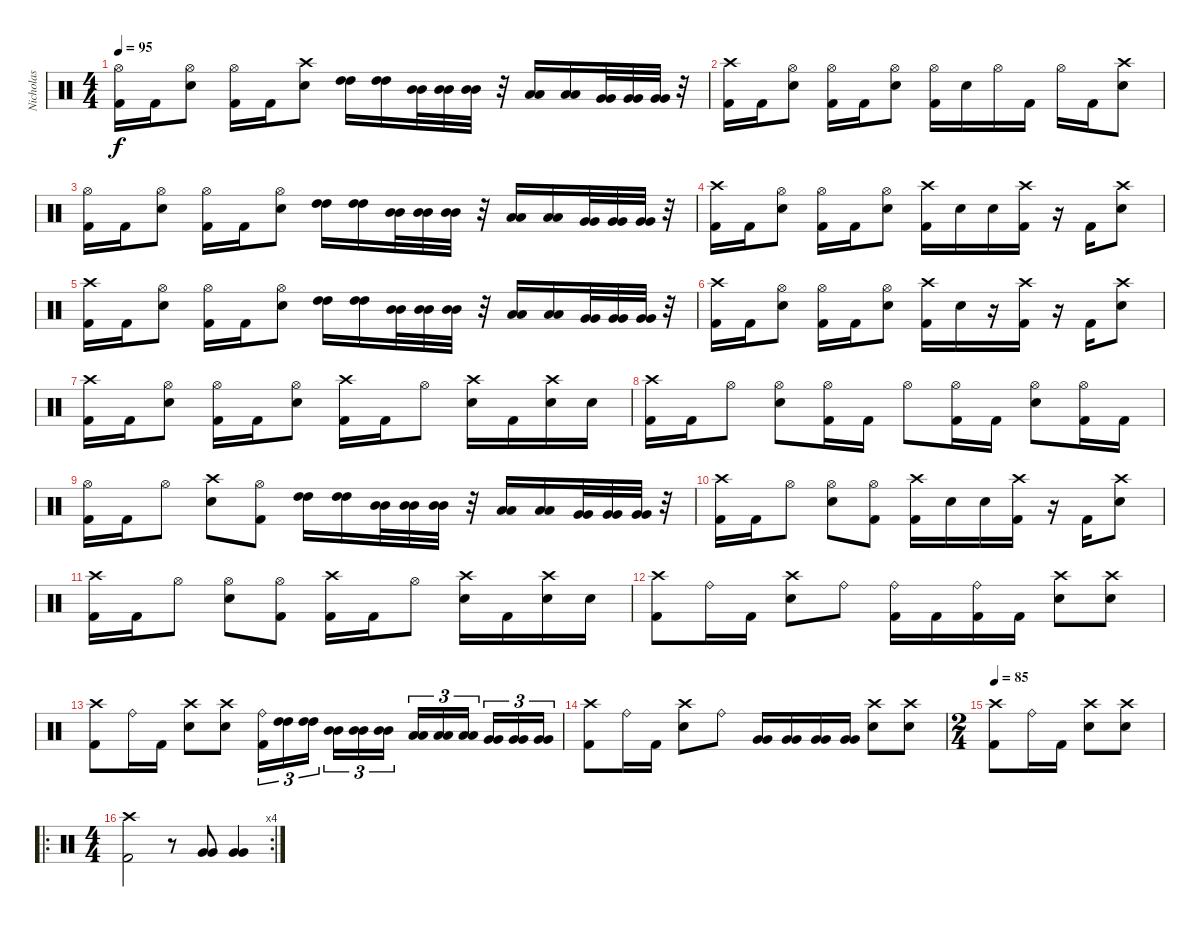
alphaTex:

\track ("Nicholas" "Nicholas") {instrument percussion}
\staff {score}
\articulation defaults
\ts (4 4)
\tempo 95
\clef neutral
\ks c
("Hi-Hat (open)" "Kick (hit) 2").16{dy f} "Kick (hit) 2".16 ("Hi-Hat (open)" "Electric Snare (hit)").8 ("Hi-Hat (open)" "Kick (hit) 2").16 "Kick (hit) 2".16 ("Crash high (hit)" "Electric Snare (hit)").8 ("High Tom (hit)" "High Tom (hit)").16{balance 10} ("High Tom (hit)" "High Tom (hit)").16 ("Mid Tom (hit)" "Mid Tom (hit)").32{balance 8} ("Mid Tom (hit)" "Mid Tom (hit)").32 ("Mid Tom (hit)" "Mid Tom (hit)").32 r.32 ("Low Tom (hit)" "Low Tom (hit)").16{balance 7} ("Low Tom (hit)" "Low Tom (hit)").16 ("Very Low Tom (hit)" "Very Low Tom (hit)").32{balance 6} ("Very Low Tom (hit)" "Very Low Tom (hit)").32 ("Very Low Tom (hit)" "Very Low Tom (hit)").32 r.32{balance 8} |
("Crash high (hit)" "Kick (hit) 2").16 "Kick (hit) 2".16 ("Hi-Hat (open)" "Electric Snare (hit)").8 ("Hi-Hat (open)" "Kick (hit) 2").16 "Kick (hit) 2".16 ("Hi-Hat (open)" "Electric Snare (hit)").8 ("Hi-Hat (open)" "Kick (hit) 2").16 "Electric Snare (hit)".16 "Hi-Hat (open)".16 "Kick (hit) 2".16 "Hi-Hat (open)".16 "Kick (hit) 2".16 ("Crash high (hit)" "Electric Snare (hit)").8 |
("Hi-Hat (open)" "Kick (hit) 2").16 "Kick (hit) 2".16 ("Hi-Hat (open)" "Electric Snare (hit)").8 ("Hi-Hat (open)" "Kick (hit) 2").16 "Kick (hit) 2".16 ("Hi-Hat (open)" "Electric Snare (hit)").8 ("High Tom (hit)" "High Tom (hit)").16{balance 10} ("High Tom (hit)" "High Tom (hit)").16 ("Mid Tom (hit)" "Mid Tom (hit)").32{balance 8} ("Mid Tom (hit)" "Mid Tom (hit)").32 ("Mid Tom (hit)" "Mid Tom (hit)").32 r.32 ("Low Tom (hit)" "Low Tom (hit)").16{balance 7} ("Low Tom (hit)" "Low Tom (hit)").16 ("Very Low Tom (hit)" "Very Low Tom (hit)").32{balance 6} ("Very Low Tom (hit)" "Very Low Tom (hit)").32 ("Very Low Tom (hit)" "Very Low Tom (hit)").32 r.32{balance 8} |
("Crash high (hit)" "Kick (hit) 2").16 "Kick (hit) 2".16 ("Hi-Hat (open)" "Electric Snare (hit)").8 ("Hi-Hat (open)" "Kick (hit) 2").16 "Kick (hit) 2".16 ("Hi-Hat (open)" "Electric Snare (hit)").8 ("Crash high (hit)" "Kick (hit) 2").16 "Electric Snare (hit)".16 "Electric Snare (hit)".16 ("Crash high (hit)" "Kick (hit) 2").16 r.16 "Kick (hit) 2".16 ("Crash high (hit)" "Electric Snare (hit)").8 |
("Crash high (hit)" "Kick (hit) 2").16 "Kick (hit) 2".16 ("Hi-Hat (open)" "Electric Snare (hit)").8 ("Hi-Hat (open)" "Kick (hit) 2").16 "Kick (hit) 2".16 ("Hi-Hat (open)" "Electric Snare (hit)").8 ("High Tom (hit)" "High Tom (hit)").16{balance 10} ("High Tom (hit)" "High Tom (hit)").16 ("Mid Tom (hit)" "Mid Tom (hit)").32{balance 8} ("Mid Tom (hit)" "Mid Tom (hit)").32 ("Mid Tom (hit)" "Mid Tom (hit)").32 r.32 ("Low Tom (hit)" "Low Tom (hit)").16{balance 7} ("Low Tom (hit)" "Low Tom (hit)").16 ("Very Low Tom (hit)" "Very Low Tom (hit)").32{balance 6} ("Very Low Tom (hit)" "Very Low Tom (hit)").32 ("Very Low Tom (hit)" "Very Low Tom (hit)").32 r.32{balance 8} |
("Crash high (hit)" "Kick (hit) 2").16 "Kick (hit) 2".16 ("Hi-Hat (open)" "Electric Snare (hit)").8 ("Hi-Hat (open)" "Kick (hit) 2").16 "Kick (hit) 2".16 ("Hi-Hat (open)" "Electric Snare (hit)").8 ("Crash high (hit)" "Kick (hit) 2").16 "Electric Snare (hit)".16 r.16 ("Crash high (hit)" "Kick (hit) 2").16 r.16 "Kick (hit) 2".16 ("Crash high (hit)" "Electric Snare (hit)").8 |
("Crash high (hit)" "Kick (hit) 2").16 "Kick (hit) 2".16 ("Hi-Hat (open)" "Electric Snare (hit)").8 ("Hi-Hat (open)" "Kick (hit) 2").16 "Kick (hit) 2".16 ("Hi-Hat (open)" "Electric Snare (hit)").8 ("Crash high (hit)" "Kick (hit) 2").16 "Kick (hit) 2".16 "Hi-Hat (open)".8 ("Crash high (hit)" "Electric Snare (hit)").16 "Kick (hit) 2".16 ("Crash high (hit)" "Electric Snare (hit)").16 "Electric Snare (hit)".16 |
("Crash high (hit)" "Kick (hit) 2").16 "Kick (hit) 2".16 "Hi-Hat (open)".8 ("Hi-Hat (open)" "Electric Snare (hit)").8 ("Hi-Hat (open)" "Kick (hit) 2").16 "Kick (hit) 2".16 "Hi-Hat (open)".8 ("Hi-Hat (open)" "Kick (hit) 2").16 "Kick (hit) 2".16 ("Hi-Hat (open)" "Electric Snare (hit)").8 ("Hi-Hat (open)" "Kick (hit) 2").16 "Kick (hit) 2".16 |
("Hi-Hat (open)" "Kick (hit) 2").16 "Kick (hit) 2".16 "Hi-Hat (open)".8 ("Crash high (hit)" "Electric Snare (hit)").8 ("Hi-Hat (open)" "Kick (hit) 2").8 ("High Tom (hit)" "High Tom (hit)").16{balance 10} ("High Tom (hit)" "High Tom (hit)").16 ("Mid Tom (hit)" "Mid Tom (hit)").32{balance 8} ("Mid Tom (hit)" "Mid Tom (hit)").32 ("Mid Tom (hit)" "Mid Tom (hit)").32 r.32 ("Low Tom (hit)" "Low Tom (hit)").16{balance 7} ("Low Tom (hit)" "Low Tom (hit)").16 ("Very Low Tom (hit)" "Very Low Tom (hit)").32{balance 6} ("Very Low Tom (hit)" "Very Low Tom (hit)").32 ("Very Low Tom (hit)" "Very Low Tom (hit)").32 r.32{balance 8} |
("Crash high (hit)" "Kick (hit) 2").16 "Kick (hit) 2".16 "Hi-Hat (open)".8 ("Hi-Hat (open)" "Electric Snare (hit)").8 ("Hi-Hat (open)" "Kick (hit) 2").8 ("Crash high (hit)" "Kick (hit) 2").16 "Electric Snare (hit)".16 "Electric Snare (hit)".16 ("Crash high (hit)" "Kick (hit) 2").16 r.16 "Kick (hit) 2".16 ("Crash high (hit)" "Electric Snare (hit)").8 |
("Crash high (hit)" "Kick (hit) 2").16 "Kick (hit) 2".16 "Hi-Hat (open)".8 ("Hi-Hat (open)" "Electric Snare (hit)").8 ("Hi-Hat (open)" "Kick (hit) 2").8 ("Crash high (hit)" "Kick (hit) 2").16 "Kick (hit) 2".16 "Hi-Hat (open)".8 ("Crash high (hit)" "Electric Snare (hit)").16 "Kick (hit) 2".16 ("Crash high (hit)" "Electric Snare (hit)").16 "Electric Snare (hit)".16 |
("Crash high (hit)" "Kick (hit) 2").8 "Ride (bell)".16 "Kick (hit) 2".16 ("Crash high (hit)" "Electric Snare (hit)").8 "Ride (bell)".8 ("Ride (bell)" "Kick (hit) 2").16 "Kick (hit) 2".16 ("Ride (bell)" "Kick (hit) 2").16 "Kick (hit) 2".16 ("Crash high (hit)" "Electric Snare (hit)").8 ("Crash high (hit)" "Electric Snare (hit)").8 |
("Crash high (hit)" "Kick (hit) 2").8 "Ride (bell)".16 "Kick (hit) 2".16 ("Crash high (hit)" "Electric Snare (hit)").8 ("Crash high (hit)" "Electric Snare (hit)").8 ("Ride (bell)" "Kick (hit) 2").16{tu (3 2)} ("High Tom (hit)" "High Tom (hit)").16{tu (3 2) balance 5} ("High Tom (hit)" "High Tom (hit)").16{tu (3 2)} ("Mid Tom (hit)" "Mid Tom (hit)").16{tu (3 2) balance 6} ("Mid Tom (hit)" "Mid Tom (hit)").16{tu (3 2)} ("Mid Tom (hit)" "Mid Tom (hit)").16{tu (3 2)} ("Low Tom (hit)" "Low Tom (hit)").16{tu (3 2) balance 8} ("Low Tom (hit)" "Low Tom (hit)").16{tu (3 2)} ("Low Tom (hit)" "Low Tom (hit)").16{tu (3 2)} ("Very Low Tom (hit)" "Very Low Tom (hit)").16{tu (3 2) balance 10} ("Very Low Tom (hit)" "Very Low Tom (hit)").16{tu (3 2)} ("Very Low Tom (hit)" "Very Low Tom (hit)").16{tu (3 2)} |
("Crash high (hit)" "Kick (hit) 2").8{balance 8} "Ride (bell)".16 "Kick (hit) 2".16 ("Crash high (hit)" "Electric Snare (hit)").8 "Ride (bell)".8 ("Very Low Tom (hit)" "Very Low Tom (hit)").16{balance 10} ("Very Low Tom (hit)" "Very Low Tom (hit)").16 ("Very Low Tom (hit)" "Very Low Tom (hit)").16 ("Very Low Tom (hit)" "Very Low Tom (hit)").16 ("Crash high (hit)" "Electric Snare (hit)").8{balance 8} ("Crash high (hit)" "Electric Snare (hit)").8 |
\ts (2 4)
\tempo 85
("Crash high (hit)" "Kick (hit) 2").8 "Ride (bell)".16 "Kick (hit) 2".16 ("Crash high (hit)" "Electric Snare (hit)").8 ("Crash high (hit)" "Electric Snare (hit)").8 |
\ro
\rc 4
\ts (4 4)
("Crash high (hit)" "Kick (hit) 2").2{balance 8} r.8 ("Very Low Tom (hit)" "Very Low Tom (hit)").8{balance 11} ("Very Low Tom (hit)" "Very Low Tom (hit)").4
